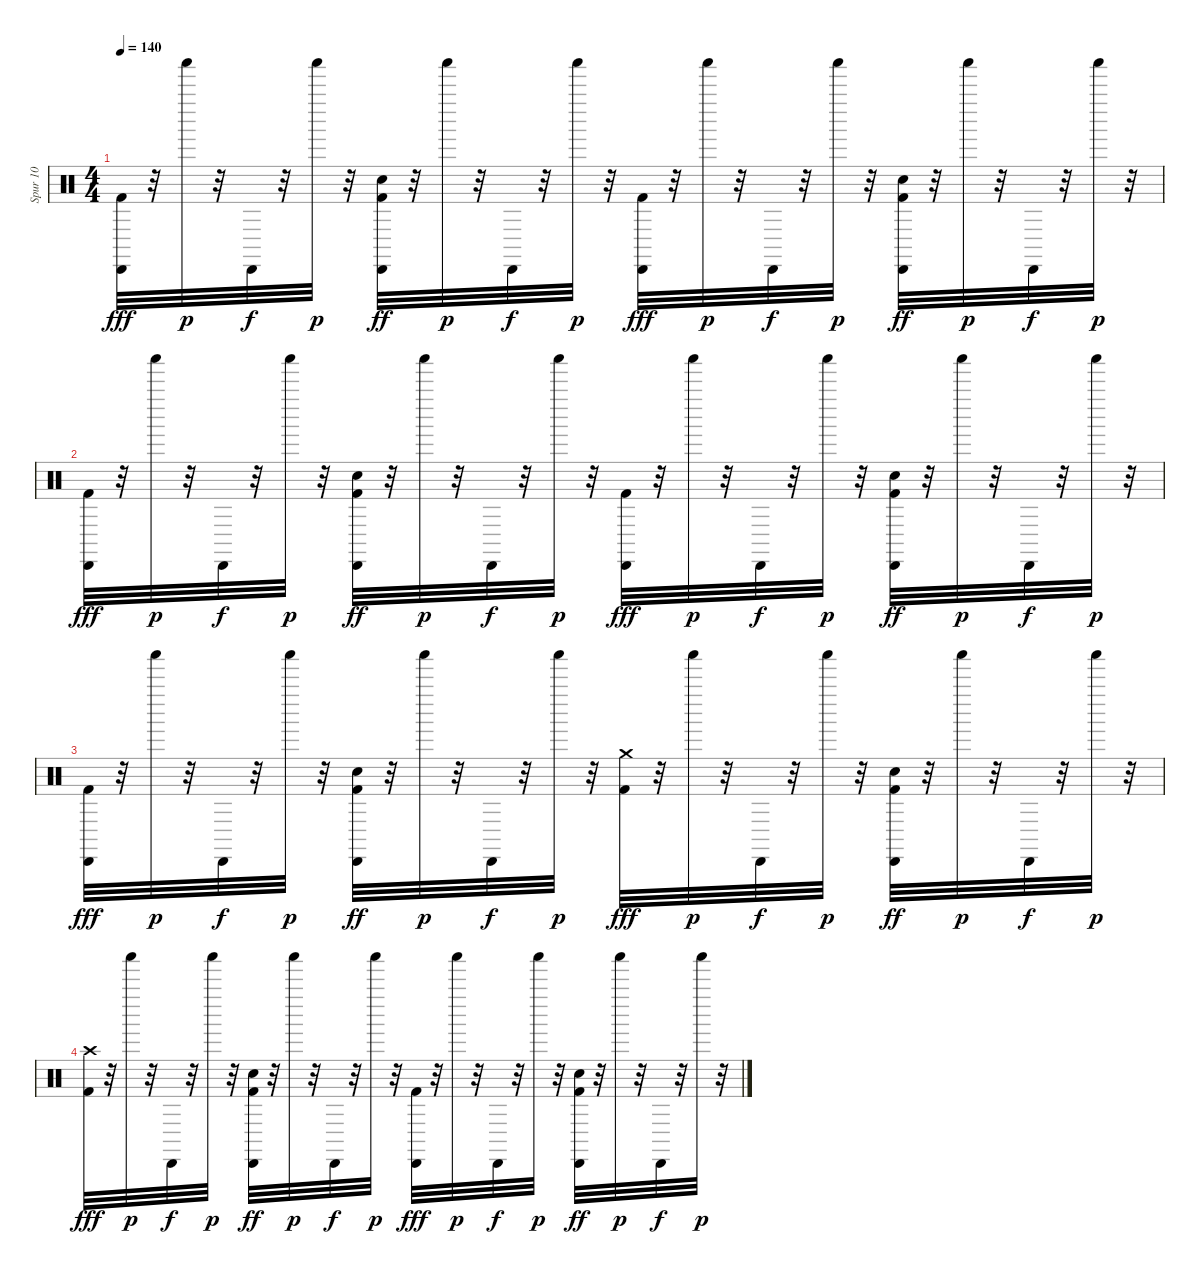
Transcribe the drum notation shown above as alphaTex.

\track ("Spur 10" "Spur 10") {instrument percussion}
\staff {score}
\articulation defaults
\ts (4 4)
\tempo 140
\clef neutral
\ks c
("Cabasa (hit)" "Kick (hit) 2").32{dy fff} r.32 "Shaker (hit)".32{dy p} r.32 "Cabasa (hit)".32{dy f} r.32 "Shaker (hit)".32{dy p} r.32 ("Snare (hit) 2" "Cabasa (hit)" "Kick (hit) 2").32{dy ff} r.32 "Shaker (hit)".32{dy p} r.32 "Cabasa (hit)".32{dy f} r.32 "Shaker (hit)".32{dy p} r.32 ("Cabasa (hit)" "Kick (hit) 2").32{dy fff} r.32 "Shaker (hit)".32{dy p} r.32 "Cabasa (hit)".32{dy f} r.32 "Shaker (hit)".32{dy p} r.32 ("Snare (hit) 2" "Cabasa (hit)" "Kick (hit) 2").32{dy ff} r.32 "Shaker (hit)".32{dy p} r.32 "Cabasa (hit)".32{dy f} r.32 "Shaker (hit)".32{dy p} r.32 |
("Cabasa (hit)" "Kick (hit) 2").32{dy fff} r.32 "Shaker (hit)".32{dy p} r.32 "Cabasa (hit)".32{dy f} r.32 "Shaker (hit)".32{dy p} r.32 ("Snare (hit) 2" "Cabasa (hit)" "Kick (hit) 2").32{dy ff} r.32 "Shaker (hit)".32{dy p} r.32 "Cabasa (hit)".32{dy f} r.32 "Shaker (hit)".32{dy p} r.32 ("Cabasa (hit)" "Kick (hit) 2").32{dy fff} r.32 "Shaker (hit)".32{dy p} r.32 "Cabasa (hit)".32{dy f} r.32 "Shaker (hit)".32{dy p} r.32 ("Snare (hit) 2" "Cabasa (hit)" "Kick (hit) 2").32{dy ff} r.32 "Shaker (hit)".32{dy p} r.32 "Cabasa (hit)".32{dy f} r.32 "Shaker (hit)".32{dy p} r.32 |
("Cabasa (hit)" "Kick (hit) 2").32{dy fff} r.32 "Shaker (hit)".32{dy p} r.32 "Cabasa (hit)".32{dy f} r.32 "Shaker (hit)".32{dy p} r.32 ("Snare (hit) 2" "Cabasa (hit)" "Kick (hit) 2").32{dy ff} r.32 "Shaker (hit)".32{dy p} r.32 "Cabasa (hit)".32{dy f} r.32 "Shaker (hit)".32{dy p} r.32 ("Crash medium (hit)" "Kick (hit) 2").32{dy fff} r.32 "Shaker (hit)".32{dy p} r.32 "Cabasa (hit)".32{dy f} r.32 "Shaker (hit)".32{dy p} r.32 ("Snare (hit) 2" "Cabasa (hit)" "Kick (hit) 2").32{dy ff} r.32 "Shaker (hit)".32{dy p} r.32 "Cabasa (hit)".32{dy f} r.32 "Shaker (hit)".32{dy p} r.32 |
("Crash high (hit)" "Kick (hit) 2").32{dy fff} r.32 "Shaker (hit)".32{dy p} r.32 "Cabasa (hit)".32{dy f} r.32 "Shaker (hit)".32{dy p} r.32 ("Snare (hit) 2" "Cabasa (hit)" "Kick (hit) 2").32{dy ff} r.32 "Shaker (hit)".32{dy p} r.32 "Cabasa (hit)".32{dy f} r.32 "Shaker (hit)".32{dy p} r.32 ("Cabasa (hit)" "Kick (hit) 2").32{dy fff} r.32 "Shaker (hit)".32{dy p} r.32 "Cabasa (hit)".32{dy f} r.32 "Shaker (hit)".32{dy p} r.32 ("Snare (hit) 2" "Cabasa (hit)" "Kick (hit) 2").32{dy ff} r.32 "Shaker (hit)".32{dy p} r.32 "Cabasa (hit)".32{dy f} r.32 "Shaker (hit)".32{dy p} r.32
